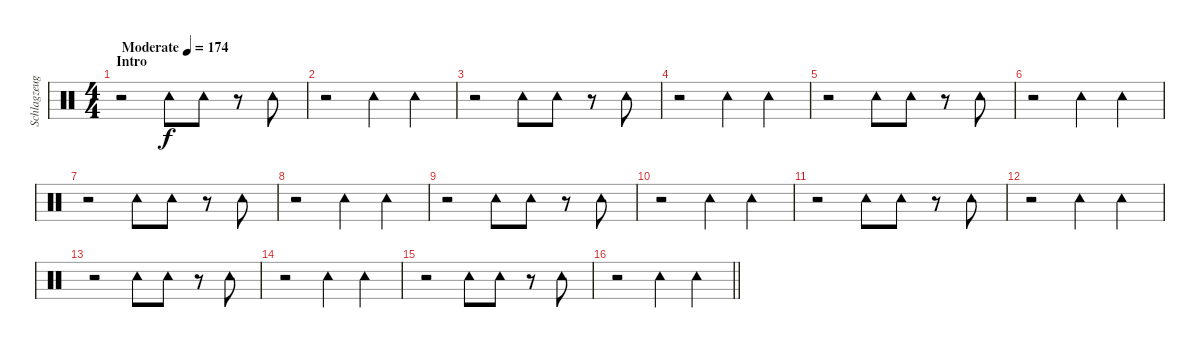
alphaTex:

\track ("Schlagzeug" "Schlagzeug") {instrument percussion}
\staff {score}
\articulation defaults
\ts (4 4)
\section ("" "Intro")
\tempo (174 "Moderate")
\clef neutral
\ks c
r.2{dy f} "Tambourine (hit)".8 "Tambourine (hit)".8 r.8 "Tambourine (hit)".8 |
r.2 "Tambourine (hit)".4 "Tambourine (hit)".4 |
r.2 "Tambourine (hit)".8 "Tambourine (hit)".8 r.8 "Tambourine (hit)".8 |
r.2 "Tambourine (hit)".4 "Tambourine (hit)".4 |
r.2 "Tambourine (hit)".8 "Tambourine (hit)".8 r.8 "Tambourine (hit)".8 |
r.2 "Tambourine (hit)".4 "Tambourine (hit)".4 |
r.2 "Tambourine (hit)".8 "Tambourine (hit)".8 r.8 "Tambourine (hit)".8 |
r.2 "Tambourine (hit)".4 "Tambourine (hit)".4 |
r.2 "Tambourine (hit)".8 "Tambourine (hit)".8 r.8 "Tambourine (hit)".8 |
r.2 "Tambourine (hit)".4 "Tambourine (hit)".4 |
r.2 "Tambourine (hit)".8 "Tambourine (hit)".8 r.8 "Tambourine (hit)".8 |
r.2 "Tambourine (hit)".4 "Tambourine (hit)".4 |
r.2 "Tambourine (hit)".8 "Tambourine (hit)".8 r.8 "Tambourine (hit)".8 |
r.2 "Tambourine (hit)".4 "Tambourine (hit)".4 |
r.2 "Tambourine (hit)".8 "Tambourine (hit)".8 r.8 "Tambourine (hit)".8 |
\barLineRight lightlight
r.2 "Tambourine (hit)".4 "Tambourine (hit)".4
